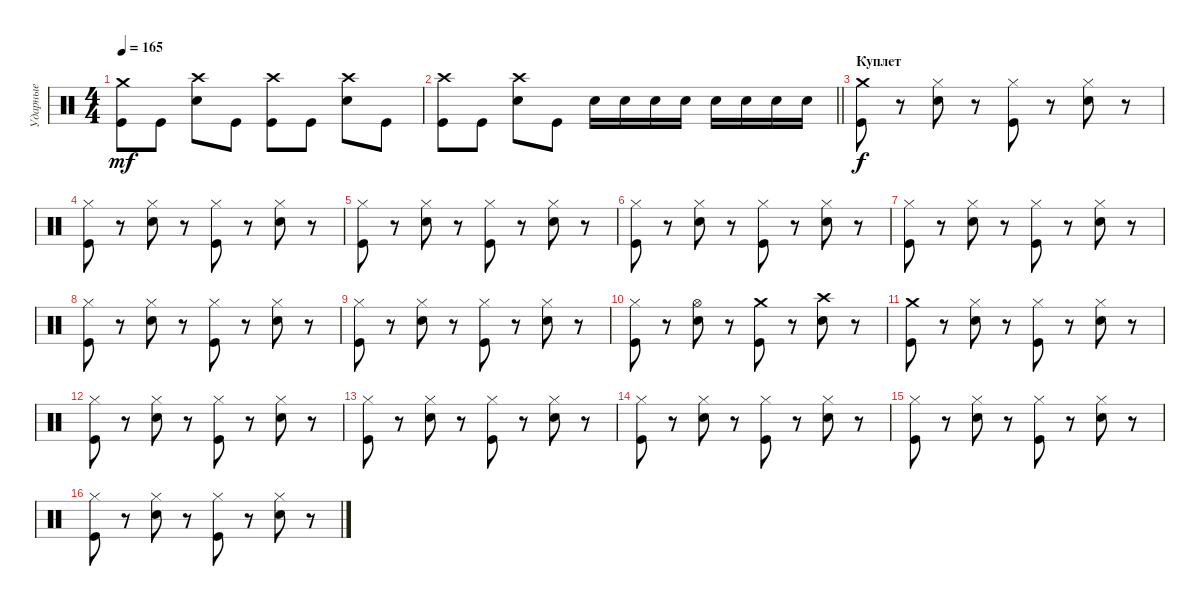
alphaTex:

\track ("Ударные" "Ударные") {instrument percussion}
\staff {score}
\articulation defaults
\ts (4 4)
\tempo 165
\clef neutral
\ks c
("Crash medium (hit)" "Kick (hit)").8{dy mf} "Kick (hit)".8 ("Crash high (hit)" "Electric Snare (hit)").8 "Kick (hit)".8 ("Crash high (hit)" "Kick (hit)").8 "Kick (hit)".8 ("Crash high (hit)" "Electric Snare (hit)").8 "Kick (hit)".8 |
\barLineRight lightlight
("Crash high (hit)" "Kick (hit)").8 "Kick (hit)".8 ("Crash high (hit)" "Electric Snare (hit)").8 "Kick (hit)".8 "Electric Snare (hit)".16 "Electric Snare (hit)".16 "Electric Snare (hit)".16 "Electric Snare (hit)".16 "Electric Snare (hit)".16 "Electric Snare (hit)".16 "Electric Snare (hit)".16 "Electric Snare (hit)".16 |
\section ("" "Куплет")
("Crash medium (hit)" "Kick (hit)").8{dy f} r.8 ("Hi-Hat (closed)" "Electric Snare (hit)").8 r.8 ("Hi-Hat (closed)" "Kick (hit)").8 r.8 ("Hi-Hat (closed)" "Electric Snare (hit)").8 r.8 |
("Hi-Hat (closed)" "Kick (hit)").8 r.8 ("Hi-Hat (closed)" "Electric Snare (hit)").8 r.8 ("Hi-Hat (closed)" "Kick (hit)").8 r.8 ("Hi-Hat (closed)" "Electric Snare (hit)").8 r.8 |
("Hi-Hat (closed)" "Kick (hit)").8 r.8 ("Hi-Hat (closed)" "Electric Snare (hit)").8 r.8 ("Hi-Hat (closed)" "Kick (hit)").8 r.8 ("Hi-Hat (closed)" "Electric Snare (hit)").8 r.8 |
("Hi-Hat (closed)" "Kick (hit)").8 r.8 ("Hi-Hat (closed)" "Electric Snare (hit)").8 r.8 ("Hi-Hat (closed)" "Kick (hit)").8 r.8 ("Hi-Hat (closed)" "Electric Snare (hit)").8 r.8 |
("Hi-Hat (closed)" "Kick (hit)").8 r.8 ("Hi-Hat (closed)" "Electric Snare (hit)").8 r.8 ("Hi-Hat (closed)" "Kick (hit)").8 r.8 ("Hi-Hat (closed)" "Electric Snare (hit)").8 r.8 |
("Hi-Hat (closed)" "Kick (hit)").8 r.8 ("Hi-Hat (closed)" "Electric Snare (hit)").8 r.8 ("Hi-Hat (closed)" "Kick (hit)").8 r.8 ("Hi-Hat (closed)" "Electric Snare (hit)").8 r.8 |
("Hi-Hat (closed)" "Kick (hit)").8 r.8 ("Hi-Hat (closed)" "Electric Snare (hit)").8 r.8 ("Hi-Hat (closed)" "Kick (hit)").8 r.8 ("Hi-Hat (closed)" "Electric Snare (hit)").8 r.8 |
("Hi-Hat (closed)" "Kick (hit)").8 r.8 ("Hi-Hat (open)" "Electric Snare (hit)").8 r.8 ("Crash medium (hit)" "Kick (hit)").8 r.8 ("Crash high (hit)" "Electric Snare (hit)").8 r.8 |
("Crash medium (hit)" "Kick (hit)").8 r.8 ("Hi-Hat (closed)" "Electric Snare (hit)").8 r.8 ("Hi-Hat (closed)" "Kick (hit)").8 r.8 ("Hi-Hat (closed)" "Electric Snare (hit)").8 r.8 |
("Hi-Hat (closed)" "Kick (hit)").8 r.8 ("Hi-Hat (closed)" "Electric Snare (hit)").8 r.8 ("Hi-Hat (closed)" "Kick (hit)").8 r.8 ("Hi-Hat (closed)" "Electric Snare (hit)").8 r.8 |
("Hi-Hat (closed)" "Kick (hit)").8 r.8 ("Hi-Hat (closed)" "Electric Snare (hit)").8 r.8 ("Hi-Hat (closed)" "Kick (hit)").8 r.8 ("Hi-Hat (closed)" "Electric Snare (hit)").8 r.8 |
("Hi-Hat (closed)" "Kick (hit)").8 r.8 ("Hi-Hat (closed)" "Electric Snare (hit)").8 r.8 ("Hi-Hat (closed)" "Kick (hit)").8 r.8 ("Hi-Hat (closed)" "Electric Snare (hit)").8 r.8 |
("Hi-Hat (closed)" "Kick (hit)").8 r.8 ("Hi-Hat (closed)" "Electric Snare (hit)").8 r.8 ("Hi-Hat (closed)" "Kick (hit)").8 r.8 ("Hi-Hat (closed)" "Electric Snare (hit)").8 r.8 |
("Hi-Hat (closed)" "Kick (hit)").8 r.8 ("Hi-Hat (closed)" "Electric Snare (hit)").8 r.8 ("Hi-Hat (closed)" "Kick (hit)").8 r.8 ("Hi-Hat (closed)" "Electric Snare (hit)").8 r.8
